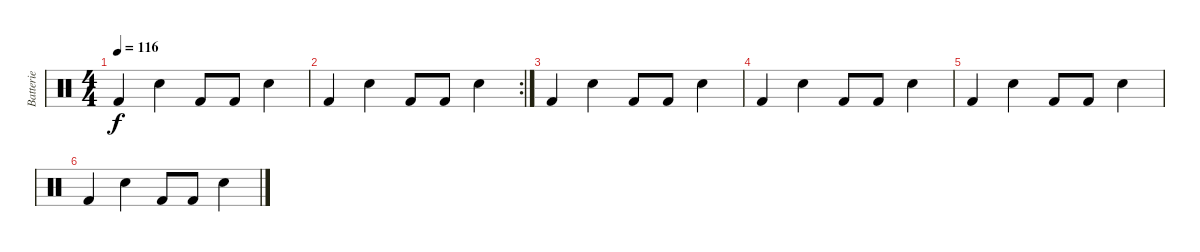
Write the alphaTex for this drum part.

\track ("Batterie" "Batterie") {instrument percussion}
\staff {score}
\articulation defaults
\ts (4 4)
\tempo 116
\clef neutral
\ks c "Kick (hit) 2".4{dy f} "Snare (hit) 2".4 "Kick (hit) 2".8 "Kick (hit) 2".8 "Snare (hit) 2".4
|
\rc 2 "Kick (hit) 2".4 "Snare (hit) 2".4 "Kick (hit) 2".8 "Kick (hit) 2".8 "Snare (hit) 2".4
|
"Kick (hit) 2".4 "Snare (hit) 2".4 "Kick (hit) 2".8 "Kick (hit) 2".8 "Snare (hit) 2".4 |
"Kick (hit) 2".4 "Snare (hit) 2".4 "Kick (hit) 2".8 "Kick (hit) 2".8 "Snare (hit) 2".4 |
"Kick (hit) 2".4 "Snare (hit) 2".4 "Kick (hit) 2".8 "Kick (hit) 2".8 "Snare (hit) 2".4 |
"Kick (hit) 2".4 "Snare (hit) 2".4 "Kick (hit) 2".8 "Kick (hit) 2".8 "Snare (hit) 2".4
